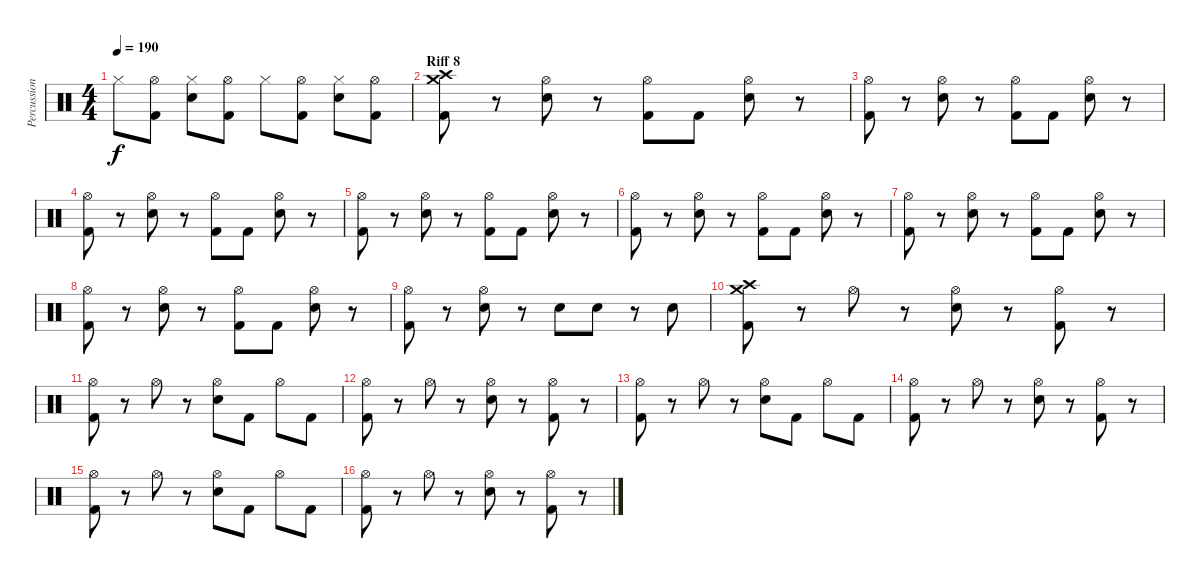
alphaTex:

\track ("Percussion" "Percussion") {instrument percussion}
\staff {score}
\articulation defaults
\ts (4 4)
\tempo 190
\clef neutral
\ks c "Hi-Hat (closed)".8{dy f}
("Hi-Hat (open)" "Kick (hit) 2").8 ("Hi-Hat (closed)" "Electric Snare (hit)").8 ("Hi-Hat (open)" "Kick (hit) 2").8 "Hi-Hat (closed)".8 ("Hi-Hat (open)" "Kick (hit) 2").8 ("Hi-Hat (closed)" "Electric Snare (hit)").8 ("Hi-Hat (open)" "Kick (hit) 2").8 |
\section ("" "Riff 8")
("Crash medium (hit)" "Crash high (hit)" "Kick (hit) 2").8 r.8 ("Hi-Hat (open)" "Electric Snare (hit)").8 r.8 ("Hi-Hat (open)" "Kick (hit) 2").8 "Kick (hit) 2".8 ("Hi-Hat (open)" "Electric Snare (hit)").8 r.8 |
("Hi-Hat (open)" "Kick (hit) 2").8 r.8 ("Hi-Hat (open)" "Electric Snare (hit)").8 r.8 ("Hi-Hat (open)" "Kick (hit) 2").8 "Kick (hit) 2".8 ("Hi-Hat (open)" "Electric Snare (hit)").8 r.8 |
("Hi-Hat (open)" "Kick (hit) 2").8 r.8 ("Hi-Hat (open)" "Electric Snare (hit)").8 r.8 ("Hi-Hat (open)" "Kick (hit) 2").8 "Kick (hit) 2".8 ("Hi-Hat (open)" "Electric Snare (hit)").8 r.8 |
("Hi-Hat (open)" "Kick (hit) 2").8 r.8 ("Hi-Hat (open)" "Electric Snare (hit)").8 r.8 ("Hi-Hat (open)" "Kick (hit) 2").8 "Kick (hit) 2".8 ("Hi-Hat (open)" "Electric Snare (hit)").8 r.8 |
("Hi-Hat (open)" "Kick (hit) 2").8 r.8 ("Hi-Hat (open)" "Electric Snare (hit)").8 r.8 ("Hi-Hat (open)" "Kick (hit) 2").8 "Kick (hit) 2".8 ("Hi-Hat (open)" "Electric Snare (hit)").8 r.8 |
("Hi-Hat (open)" "Kick (hit) 2").8 r.8 ("Hi-Hat (open)" "Electric Snare (hit)").8 r.8 ("Hi-Hat (open)" "Kick (hit) 2").8 "Kick (hit) 2".8 ("Hi-Hat (open)" "Electric Snare (hit)").8 r.8 |
("Hi-Hat (open)" "Kick (hit) 2").8 r.8 ("Hi-Hat (open)" "Electric Snare (hit)").8 r.8 ("Hi-Hat (open)" "Kick (hit) 2").8 "Kick (hit) 2".8 ("Hi-Hat (open)" "Electric Snare (hit)").8 r.8 |
("Hi-Hat (open)" "Kick (hit) 2").8 r.8 ("Hi-Hat (open)" "Electric Snare (hit)").8 r.8 "Electric Snare (hit)".8 "Electric Snare (hit)".8 r.8 "Electric Snare (hit)".8 |
("Crash medium (hit)" "Crash high (hit)" "Kick (hit) 2").8 r.8 "Hi-Hat (open)".8 r.8 ("Hi-Hat (open)" "Electric Snare (hit)").8 r.8 ("Hi-Hat (open)" "Kick (hit) 2").8 r.8 |
("Hi-Hat (open)" "Kick (hit) 2").8 r.8 "Hi-Hat (open)".8 r.8 ("Hi-Hat (open)" "Electric Snare (hit)").8 "Kick (hit) 2".8 "Hi-Hat (open)".8 "Kick (hit) 2".8 |
("Hi-Hat (open)" "Kick (hit) 2").8 r.8 "Hi-Hat (open)".8 r.8 ("Hi-Hat (open)" "Electric Snare (hit)").8 r.8 ("Hi-Hat (open)" "Kick (hit) 2").8 r.8 |
("Hi-Hat (open)" "Kick (hit) 2").8 r.8 "Hi-Hat (open)".8 r.8 ("Hi-Hat (open)" "Electric Snare (hit)").8 "Kick (hit) 2".8 "Hi-Hat (open)".8 "Kick (hit) 2".8 |
("Hi-Hat (open)" "Kick (hit) 2").8 r.8 "Hi-Hat (open)".8 r.8 ("Hi-Hat (open)" "Electric Snare (hit)").8 r.8 ("Hi-Hat (open)" "Kick (hit) 2").8 r.8 |
("Hi-Hat (open)" "Kick (hit) 2").8 r.8 "Hi-Hat (open)".8 r.8 ("Hi-Hat (open)" "Electric Snare (hit)").8 "Kick (hit) 2".8 "Hi-Hat (open)".8 "Kick (hit) 2".8 |
("Hi-Hat (open)" "Kick (hit) 2").8 r.8 "Hi-Hat (open)".8 r.8 ("Hi-Hat (open)" "Electric Snare (hit)").8 r.8 ("Hi-Hat (open)" "Kick (hit) 2").8 r.8
